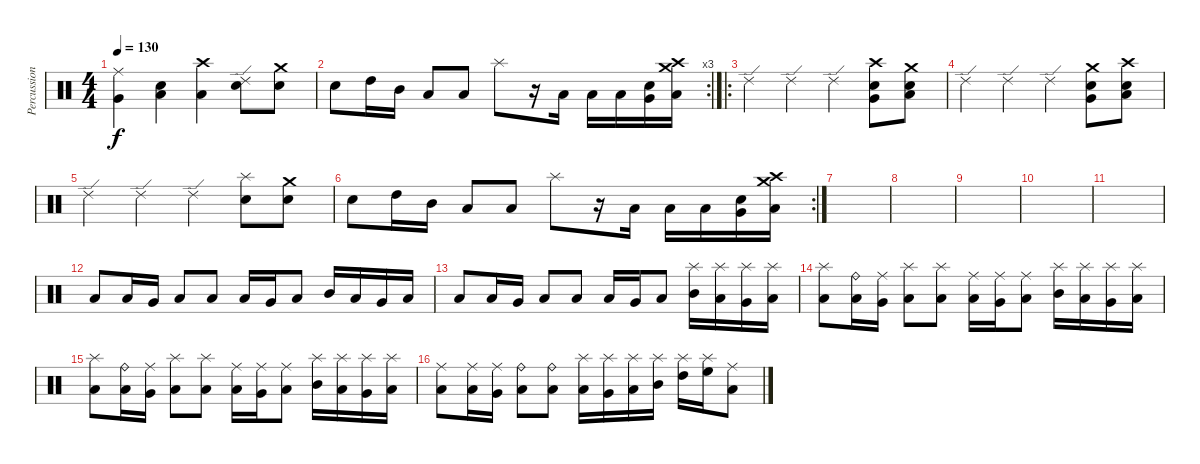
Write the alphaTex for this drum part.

\track ("Percussion" "Percussion") {instrument percussion}
\staff {score}
\articulation defaults
\ts (4 4)
\tempo 130
\clef neutral
\ks c
("Very Low Tom (hit)" "Ride (middle)").4{dy f} ("Electric Snare (hit)" "Low Tom (hit)").4 ("Crash high (hit)" "Low Tom (hit)").4 ("Ride (edge) 2" "Snare (hit) 2").8 ("Crash medium (hit)" "Snare (hit) 2").8 |
\rc 3 "Electric Snare (hit)".8 "High Tom (hit)".16 "Mid Tom (hit)".16 "Low Tom (hit)".8 "Low Tom (hit)".8 "Splash (hit)".8
r.16 "Low Floor Tom (hit)".16 "Low Floor Tom (hit)".16 "Low Floor Tom (hit)".16 ("Electric Snare (hit)" "Very Low Tom (hit)").16 ("Crash medium (hit)" "Crash high (hit)" "Low Tom (hit)").16 |
\ro "Ride (edge) 2".4 "Ride (edge) 2".4 "Ride (edge) 2".4
("Electric Snare (hit)" "Very Low Tom (hit)" "Crash high (hit)").8 ("Electric Snare (hit)" "Low Tom (hit)" "Crash medium (hit)").8 |
"Ride (edge) 2".4 "Ride (edge) 2".4 "Ride (edge) 2".4 ("Electric Snare (hit)" "Very Low Tom (hit)" "Crash medium (hit)").8 ("Electric Snare (hit)" "Low Tom (hit)" "Crash high (hit)").8 |
"Ride (edge) 2".4 "Ride (edge) 2".4 "Ride (edge) 2".4 ("Snare (hit) 2" "Splash (hit)").8 ("Electric Snare (hit)" "Crash medium (hit)").8 |
\rc 2 "Electric Snare (hit)".8 "High Tom (hit)".16 "Mid Tom (hit)".16 "Low Tom (hit)".8 "Low Tom (hit)".8 "Splash (hit)".8
r.16 "Low Floor Tom (hit)".16 "Low Floor Tom (hit)".16 "Low Floor Tom (hit)".16 ("Electric Snare (hit)" "Very Low Tom (hit)").16 ("Crash medium (hit)" "Crash high (hit)" "Low Tom (hit)").16 |
|
|
|
|
|
"Low Floor Tom (hit)".8 "Low Tom (hit)".16 "Very Low Tom (hit)".16 "Low Floor Tom (hit)".8 "Low Floor Tom (hit)".8 "Low Tom (hit)".16 "Very Low Tom (hit)".16 "Low Floor Tom (hit)".8 "Mid Tom (hit)".16 "Low Tom (hit)".16 "Very Low Tom (hit)".16 "Low Floor Tom (hit)".16 |
"Low Floor Tom (hit)".8 "Low Tom (hit)".16 "Very Low Tom (hit)".16 "Low Floor Tom (hit)".8 "Low Floor Tom (hit)".8 "Low Tom (hit)".16 "Very Low Tom (hit)".16 "Low Floor Tom (hit)".8 ("Mid Tom (hit)" "Splash (hit)").16 ("Low Tom (hit)" "Splash (hit)").16 ("Very Low Tom (hit)" "Splash (hit)").16 ("Low Floor Tom (hit)" "Splash (hit)").16 |
("Low Floor Tom (hit)" "Splash (hit)").8 ("Low Tom (hit)" "Ride (bell)").16 ("Very Low Tom (hit)" "Ride (middle)").16 ("Low Floor Tom (hit)" "Splash (hit)").8 ("Low Floor Tom (hit)" "Splash (hit)").8 ("Low Tom (hit)" "Ride (middle)").16 ("Very Low Tom (hit)" "Ride (middle)").16 ("Low Floor Tom (hit)" "Ride (middle)").8 ("Mid Tom (hit)" "Splash (hit)").16 ("Low Tom (hit)" "Splash (hit)").16 ("Very Low Tom (hit)" "Splash (hit)").16 ("Low Floor Tom (hit)" "Splash (hit)").16 |
("Low Floor Tom (hit)" "Splash (hit)").8 ("Low Tom (hit)" "Ride (bell)").16 ("Very Low Tom (hit)" "Ride (middle)").16 ("Low Floor Tom (hit)" "Splash (hit)").8 ("Low Floor Tom (hit)" "Splash (hit)").8 ("Low Tom (hit)" "Ride (middle)").16 ("Very Low Tom (hit)" "Ride (middle)").16 ("Low Floor Tom (hit)" "Ride (middle)").8 ("Mid Tom (hit)" "Splash (hit)").16 ("Low Tom (hit)" "Splash (hit)").16 ("Very Low Tom (hit)" "Splash (hit)").16 ("Low Floor Tom (hit)" "Splash (hit)").16 |
("Ride (middle)" "Low Floor Tom (hit)").8 ("Ride (middle)" "Low Tom (hit)").16 ("Ride (middle)" "Very Low Tom (hit)").16 ("Ride (bell)" "Low Floor Tom (hit)").8 ("Ride (bell)" "Low Floor Tom (hit)").8 ("Splash (hit)" "Low Floor Tom (hit)").16 ("Splash (hit)" "Very Low Tom (hit)").16 ("Splash (hit)" "Low Tom (hit)").16 ("Splash (hit)" "Mid Tom (hit)").16 ("Splash (hit)" "High Tom (hit)").16 ("Splash (hit)" "High Floor Tom (hit)").16 ("Ride (middle)" "Low Floor Tom (hit)").8
